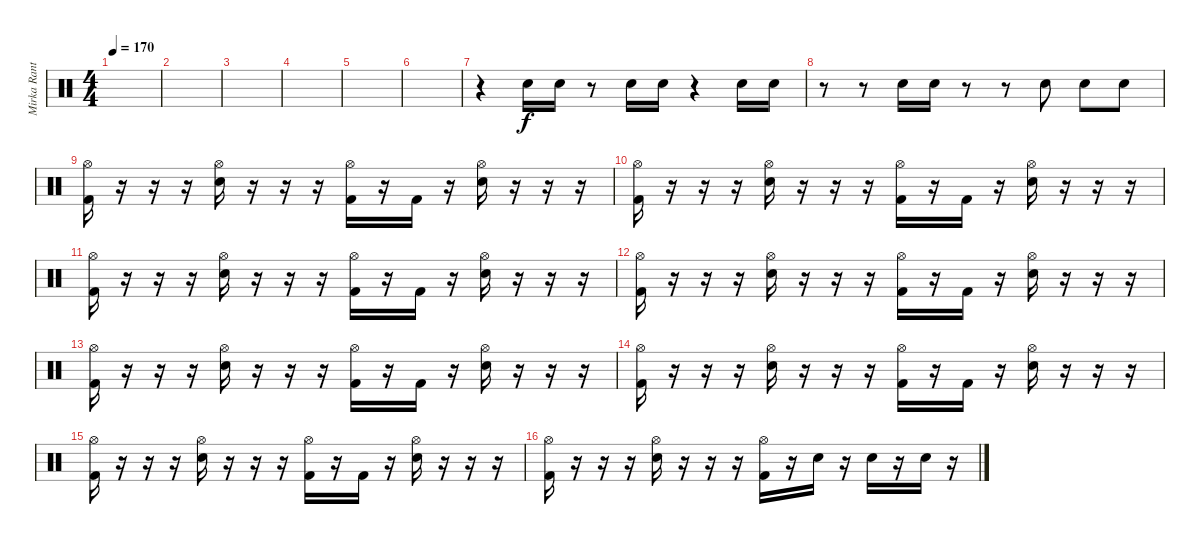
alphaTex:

\track ("Mirka Rantanen" "Mirka Rant") {instrument percussion}
\staff {score}
\articulation defaults
\ts (4 4)
\tempo 170
\clef neutral
\ks c
|
|
|
|
|
|
r.4 "Snare (hit) 2".16 "Snare (hit) 2".16 r.8 "Snare (hit) 2".16 "Snare (hit) 2".16 r.4 "Snare (hit) 2".16 "Snare (hit) 2".16 |
r.8 r.8 "Snare (hit) 2".16 "Snare (hit) 2".16 r.8 r.8 "Snare (hit) 2".8 "Snare (hit) 2".8 "Snare (hit) 2".8 |
("Hi-Hat (open)" "Kick (hit) 2").16 r.16 r.16 r.16 ("Hi-Hat (open)" "Snare (hit) 2").16 r.16 r.16 r.16 ("Hi-Hat (open)" "Kick (hit) 2").16 r.16 "Kick (hit) 2".16 r.16 ("Hi-Hat (open)" "Snare (hit) 2").16 r.16 r.16 r.16 |
("Hi-Hat (open)" "Kick (hit) 2").16 r.16 r.16 r.16 ("Hi-Hat (open)" "Snare (hit) 2").16 r.16 r.16 r.16 ("Hi-Hat (open)" "Kick (hit) 2").16 r.16 "Kick (hit) 2".16 r.16 ("Hi-Hat (open)" "Snare (hit) 2").16 r.16 r.16 r.16 |
("Hi-Hat (open)" "Kick (hit) 2").16 r.16 r.16 r.16 ("Hi-Hat (open)" "Snare (hit) 2").16 r.16 r.16 r.16 ("Hi-Hat (open)" "Kick (hit) 2").16 r.16 "Kick (hit) 2".16 r.16 ("Hi-Hat (open)" "Snare (hit) 2").16 r.16 r.16 r.16 |
("Hi-Hat (open)" "Kick (hit) 2").16 r.16 r.16 r.16 ("Hi-Hat (open)" "Snare (hit) 2").16 r.16 r.16 r.16 ("Hi-Hat (open)" "Kick (hit) 2").16 r.16 "Kick (hit) 2".16 r.16 ("Hi-Hat (open)" "Snare (hit) 2").16 r.16 r.16 r.16 |
("Hi-Hat (open)" "Kick (hit) 2").16 r.16 r.16 r.16 ("Hi-Hat (open)" "Snare (hit) 2").16 r.16 r.16 r.16 ("Hi-Hat (open)" "Kick (hit) 2").16 r.16 "Kick (hit) 2".16 r.16 ("Hi-Hat (open)" "Snare (hit) 2").16 r.16 r.16 r.16 |
("Hi-Hat (open)" "Kick (hit) 2").16 r.16 r.16 r.16 ("Hi-Hat (open)" "Snare (hit) 2").16 r.16 r.16 r.16 ("Hi-Hat (open)" "Kick (hit) 2").16 r.16 "Kick (hit) 2".16 r.16 ("Hi-Hat (open)" "Snare (hit) 2").16 r.16 r.16 r.16 |
("Hi-Hat (open)" "Kick (hit) 2").16 r.16 r.16 r.16 ("Hi-Hat (open)" "Snare (hit) 2").16 r.16 r.16 r.16 ("Hi-Hat (open)" "Kick (hit) 2").16 r.16 "Kick (hit) 2".16 r.16 ("Hi-Hat (open)" "Snare (hit) 2").16 r.16 r.16 r.16 |
("Hi-Hat (open)" "Kick (hit) 2").16 r.16 r.16 r.16 ("Hi-Hat (open)" "Snare (hit) 2").16 r.16 r.16 r.16 ("Hi-Hat (open)" "Kick (hit) 2").16 r.16 "Snare (hit) 2".16 r.16 "Snare (hit) 2".16 r.16 "Snare (hit) 2".16 r.16
